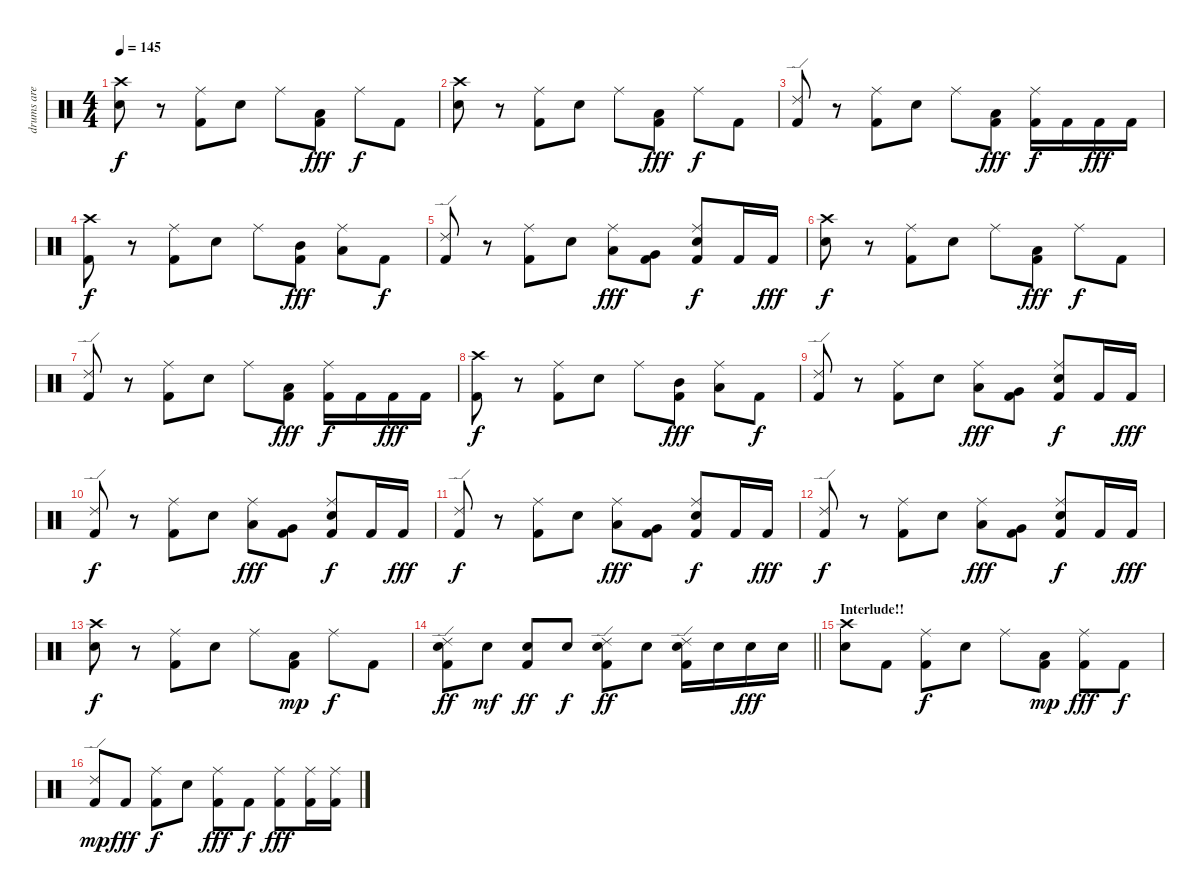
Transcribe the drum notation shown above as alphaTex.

\track ("drums are cool   >.<" "drums are ") {instrument percussion}
\staff {score}
\articulation defaults
\ts (4 4)
\tempo 145
\clef neutral
\ks c
("Crash high (hit)" "Snare (hit) 2").8{dy f} r.8 ("Ride (middle)" "Kick (hit) 2").8 "Snare (hit) 2".8 "Ride (middle)".8 ("Low Tom (hit)" "Kick (hit) 2").8{dy fff} "Ride (middle)".8{dy f} "Kick (hit) 2".8 |
("Crash high (hit)" "Snare (hit) 2").8 r.8 ("Ride (middle)" "Kick (hit) 2").8 "Snare (hit) 2".8 "Ride (middle)".8 ("Low Tom (hit)" "Kick (hit) 2").8{dy fff} "Ride (middle)".8{dy f} "Kick (hit) 2".8 |
("Ride (edge) 2" "Kick (hit) 2").8 r.8 ("Ride (middle)" "Kick (hit) 2").8 "Snare (hit) 2".8 "Ride (middle)".8 ("Low Tom (hit)" "Kick (hit) 2").8{dy fff} ("Ride (middle)" "Kick (hit) 2").16{dy f} "Kick (hit) 2".16 "Kick (hit) 2".16{dy fff} "Kick (hit) 2".16 |
("Crash high (hit)" "Kick (hit) 2").8{dy f} r.8 ("Ride (middle)" "Kick (hit) 2").8 "Snare (hit) 2".8 "Ride (middle)".8 ("Mid Tom (hit)" "Kick (hit) 2").8{dy fff} ("Ride (middle)" "Low Tom (hit)").8 "Kick (hit) 2".8{dy f} |
("Ride (edge) 2" "Kick (hit) 2").8 r.8 ("Ride (middle)" "Kick (hit) 2").8 "Snare (hit) 2".8 ("Ride (middle)" "Low Tom (hit)").8{dy fff} ("Very Low Tom (hit)" "Kick (hit) 2").8 ("Ride (middle)" "Snare (hit) 2" "Kick (hit) 2").8{dy f} "Kick (hit) 2".16 "Kick (hit) 2".16{dy fff} |
("Crash high (hit)" "Snare (hit) 2").8{dy f} r.8 ("Ride (middle)" "Kick (hit) 2").8 "Snare (hit) 2".8 "Ride (middle)".8 ("Low Tom (hit)" "Kick (hit) 2").8{dy fff} "Ride (middle)".8{dy f} "Kick (hit) 2".8 |
("Ride (edge) 2" "Kick (hit) 2").8 r.8 ("Ride (middle)" "Kick (hit) 2").8 "Snare (hit) 2".8 "Ride (middle)".8 ("Low Tom (hit)" "Kick (hit) 2").8{dy fff} ("Ride (middle)" "Kick (hit) 2").16{dy f} "Kick (hit) 2".16 "Kick (hit) 2".16{dy fff} "Kick (hit) 2".16 |
("Crash high (hit)" "Kick (hit) 2").8{dy f} r.8 ("Ride (middle)" "Kick (hit) 2").8 "Snare (hit) 2".8 "Ride (middle)".8 ("Mid Tom (hit)" "Kick (hit) 2").8{dy fff} ("Ride (middle)" "Low Tom (hit)").8 "Kick (hit) 2".8{dy f} |
("Ride (edge) 2" "Kick (hit) 2").8 r.8 ("Ride (middle)" "Kick (hit) 2").8 "Snare (hit) 2".8 ("Ride (middle)" "Low Tom (hit)").8{dy fff} ("Very Low Tom (hit)" "Kick (hit) 2").8 ("Ride (middle)" "Snare (hit) 2" "Kick (hit) 2").8{dy f} "Kick (hit) 2".16 "Kick (hit) 2".16{dy fff} |
("Ride (edge) 2" "Kick (hit) 2").8{dy f} r.8 ("Ride (middle)" "Kick (hit) 2").8 "Snare (hit) 2".8 ("Ride (middle)" "Low Tom (hit)").8{dy fff} ("Very Low Tom (hit)" "Kick (hit) 2").8 ("Ride (middle)" "Snare (hit) 2" "Kick (hit) 2").8{dy f} "Kick (hit) 2".16 "Kick (hit) 2".16{dy fff} |
("Ride (edge) 2" "Kick (hit) 2").8{dy f} r.8 ("Ride (middle)" "Kick (hit) 2").8 "Snare (hit) 2".8 ("Ride (middle)" "Low Tom (hit)").8{dy fff} ("Very Low Tom (hit)" "Kick (hit) 2").8 ("Ride (middle)" "Snare (hit) 2" "Kick (hit) 2").8{dy f} "Kick (hit) 2".16 "Kick (hit) 2".16{dy fff} |
("Ride (edge) 2" "Kick (hit) 2").8{dy f} r.8 ("Ride (middle)" "Kick (hit) 2").8 "Snare (hit) 2".8 ("Ride (middle)" "Low Tom (hit)").8{dy fff} ("Very Low Tom (hit)" "Kick (hit) 2").8 ("Ride (middle)" "Snare (hit) 2" "Kick (hit) 2").8{dy f} "Kick (hit) 2".16 "Kick (hit) 2".16{dy fff} |
("Crash high (hit)" "Snare (hit) 2").8{dy f} r.8 ("Ride (middle)" "Kick (hit) 2").8 "Snare (hit) 2".8 "Ride (middle)".8 ("Low Tom (hit)" "Kick (hit) 2").8{dy mp} "Ride (middle)".8{dy f} "Kick (hit) 2".8 |
\barLineRight lightlight
("Ride (edge) 2" "Snare (hit) 2" "Kick (hit) 2").8{dy ff} "Snare (hit) 2".8{dy mf} ("Snare (hit) 2" "Kick (hit) 2").8{dy ff} "Snare (hit) 2".8{dy f} ("Ride (edge) 2" "Snare (hit) 2" "Kick (hit) 2").8{dy ff} "Snare (hit) 2".8 ("Ride (edge) 2" "Snare (hit) 2" "Kick (hit) 2").16 "Snare (hit) 2".16 "Snare (hit) 2".16{dy fff} "Snare (hit) 2".16 |
\section ("" "Interlude!!")
("Crash high (hit)" "Snare (hit) 2").8{volume 14} "Kick (hit) 2".8 ("Ride (middle)" "Kick (hit) 2").8{dy f} "Snare (hit) 2".8 "Ride (middle)".8 ("Low Tom (hit)" "Kick (hit) 2").8{dy mp} ("Ride (middle)" "Kick (hit) 2").8{dy fff} "Kick (hit) 2".8{dy f} |
("Ride (edge) 2" "Kick (hit) 2").8{dy mp} "Kick (hit) 2".8{dy fff} ("Ride (middle)" "Kick (hit) 2").8{dy f} "Snare (hit) 2".8 ("Ride (middle)" "Kick (hit) 2").8{dy fff} "Kick (hit) 2".8{dy f} ("Ride (middle)" "Kick (hit) 2").8{dy fff} ("Ride (middle)" "Kick (hit) 2").16 ("Ride (middle)" "Kick (hit) 2").16
